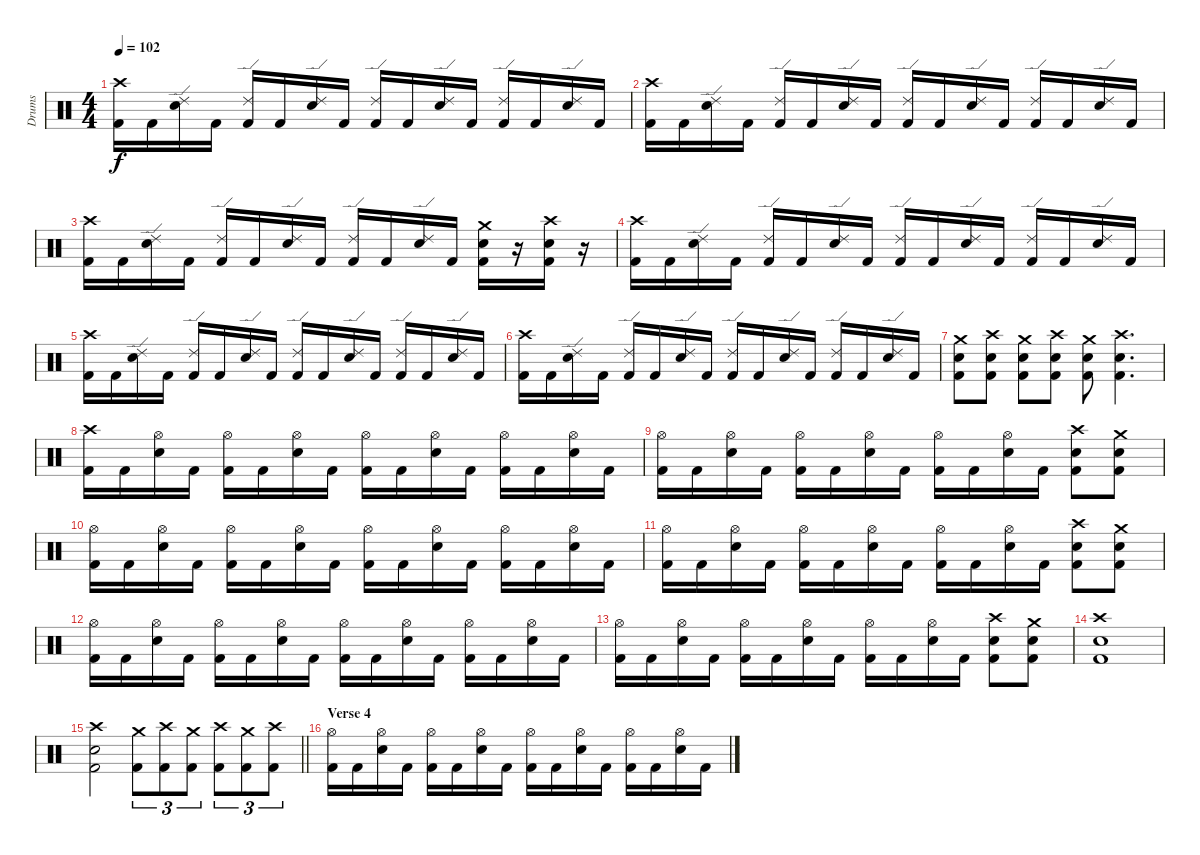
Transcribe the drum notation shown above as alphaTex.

\track ("Drums" "Drums") {instrument percussion}
\staff {score}
\articulation defaults
\ts (4 4)
\tempo 102
\clef neutral
\ks c
("Crash high (hit)" "Kick (hit) 2").16{dy f} "Kick (hit) 2".16 ("Ride (edge) 2" "Snare (hit) 2").16 "Kick (hit) 2".16 ("Ride (edge) 2" "Kick (hit) 2").16 "Kick (hit) 2".16 ("Ride (edge) 2" "Snare (hit) 2").16 "Kick (hit) 2".16 ("Ride (edge) 2" "Kick (hit) 2").16 "Kick (hit) 2".16 ("Ride (edge) 2" "Snare (hit) 2").16 "Kick (hit) 2".16 ("Ride (edge) 2" "Kick (hit) 2").16 "Kick (hit) 2".16 ("Ride (edge) 2" "Snare (hit) 2").16 "Kick (hit) 2".16 |
("Crash high (hit)" "Kick (hit) 2").16 "Kick (hit) 2".16 ("Ride (edge) 2" "Snare (hit) 2").16 "Kick (hit) 2".16 ("Ride (edge) 2" "Kick (hit) 2").16 "Kick (hit) 2".16 ("Ride (edge) 2" "Snare (hit) 2").16 "Kick (hit) 2".16 ("Ride (edge) 2" "Kick (hit) 2").16 "Kick (hit) 2".16 ("Ride (edge) 2" "Snare (hit) 2").16 "Kick (hit) 2".16 ("Ride (edge) 2" "Kick (hit) 2").16 "Kick (hit) 2".16 ("Ride (edge) 2" "Snare (hit) 2").16 "Kick (hit) 2".16 |
("Crash high (hit)" "Kick (hit) 2").16 "Kick (hit) 2".16 ("Ride (edge) 2" "Snare (hit) 2").16 "Kick (hit) 2".16 ("Ride (edge) 2" "Kick (hit) 2").16 "Kick (hit) 2".16 ("Ride (edge) 2" "Snare (hit) 2").16 "Kick (hit) 2".16 ("Ride (edge) 2" "Kick (hit) 2").16 "Kick (hit) 2".16 ("Ride (edge) 2" "Snare (hit) 2").16 "Kick (hit) 2".16 ("Crash medium (hit)" "Snare (hit) 2" "Kick (hit) 2").16 r.16 ("Crash high (hit)" "Snare (hit) 2" "Kick (hit) 2").16 r.16 |
("Crash high (hit)" "Kick (hit) 2").16 "Kick (hit) 2".16 ("Ride (edge) 2" "Snare (hit) 2").16 "Kick (hit) 2".16 ("Ride (edge) 2" "Kick (hit) 2").16 "Kick (hit) 2".16 ("Ride (edge) 2" "Snare (hit) 2").16 "Kick (hit) 2".16 ("Ride (edge) 2" "Kick (hit) 2").16 "Kick (hit) 2".16 ("Ride (edge) 2" "Snare (hit) 2").16 "Kick (hit) 2".16 ("Ride (edge) 2" "Kick (hit) 2").16 "Kick (hit) 2".16 ("Ride (edge) 2" "Snare (hit) 2").16 "Kick (hit) 2".16 |
("Crash high (hit)" "Kick (hit) 2").16 "Kick (hit) 2".16 ("Ride (edge) 2" "Snare (hit) 2").16 "Kick (hit) 2".16 ("Ride (edge) 2" "Kick (hit) 2").16 "Kick (hit) 2".16 ("Ride (edge) 2" "Snare (hit) 2").16 "Kick (hit) 2".16 ("Ride (edge) 2" "Kick (hit) 2").16 "Kick (hit) 2".16 ("Ride (edge) 2" "Snare (hit) 2").16 "Kick (hit) 2".16 ("Ride (edge) 2" "Kick (hit) 2").16 "Kick (hit) 2".16 ("Ride (edge) 2" "Snare (hit) 2").16 "Kick (hit) 2".16 |
("Crash high (hit)" "Kick (hit) 2").16 "Kick (hit) 2".16 ("Ride (edge) 2" "Snare (hit) 2").16 "Kick (hit) 2".16 ("Ride (edge) 2" "Kick (hit) 2").16 "Kick (hit) 2".16 ("Ride (edge) 2" "Snare (hit) 2").16 "Kick (hit) 2".16 ("Ride (edge) 2" "Kick (hit) 2").16 "Kick (hit) 2".16 ("Ride (edge) 2" "Snare (hit) 2").16 "Kick (hit) 2".16 ("Ride (edge) 2" "Kick (hit) 2").16 "Kick (hit) 2".16 ("Ride (edge) 2" "Snare (hit) 2").16 "Kick (hit) 2".16 |
("Crash medium (hit)" "Snare (hit) 2" "Kick (hit) 2").8 ("Crash high (hit)" "Snare (hit) 2" "Kick (hit) 2").8 ("Crash medium (hit)" "Snare (hit) 2" "Kick (hit) 2").8 ("Crash high (hit)" "Snare (hit) 2" "Kick (hit) 2").8 ("Crash medium (hit)" "Snare (hit) 2" "Kick (hit) 2").8 ("Crash high (hit)" "Snare (hit) 2" "Kick (hit) 2").4{d} |
("Crash high (hit)" "Kick (hit) 2").16 "Kick (hit) 2".16 ("Hi-Hat (open)" "Snare (hit) 2").16 "Kick (hit) 2".16 ("Hi-Hat (open)" "Kick (hit) 2").16 "Kick (hit) 2".16 ("Hi-Hat (open)" "Snare (hit) 2").16 "Kick (hit) 2".16 ("Hi-Hat (open)" "Kick (hit) 2").16 "Kick (hit) 2".16 ("Hi-Hat (open)" "Snare (hit) 2").16 "Kick (hit) 2".16 ("Hi-Hat (open)" "Kick (hit) 2").16 "Kick (hit) 2".16 ("Hi-Hat (open)" "Snare (hit) 2").16 "Kick (hit) 2".16 |
("Hi-Hat (open)" "Kick (hit) 2").16 "Kick (hit) 2".16 ("Hi-Hat (open)" "Snare (hit) 2").16 "Kick (hit) 2".16 ("Hi-Hat (open)" "Kick (hit) 2").16 "Kick (hit) 2".16 ("Hi-Hat (open)" "Snare (hit) 2").16 "Kick (hit) 2".16 ("Hi-Hat (open)" "Kick (hit) 2").16 "Kick (hit) 2".16 ("Hi-Hat (open)" "Snare (hit) 2").16 "Kick (hit) 2".16 ("Crash high (hit)" "Snare (hit) 2" "Kick (hit) 2").8 ("Crash medium (hit)" "Snare (hit) 2" "Kick (hit) 2").8 |
("Hi-Hat (open)" "Kick (hit) 2").16 "Kick (hit) 2".16 ("Hi-Hat (open)" "Snare (hit) 2").16 "Kick (hit) 2".16 ("Hi-Hat (open)" "Kick (hit) 2").16 "Kick (hit) 2".16 ("Hi-Hat (open)" "Snare (hit) 2").16 "Kick (hit) 2".16 ("Hi-Hat (open)" "Kick (hit) 2").16 "Kick (hit) 2".16 ("Hi-Hat (open)" "Snare (hit) 2").16 "Kick (hit) 2".16 ("Hi-Hat (open)" "Kick (hit) 2").16 "Kick (hit) 2".16 ("Hi-Hat (open)" "Snare (hit) 2").16 "Kick (hit) 2".16 |
("Hi-Hat (open)" "Kick (hit) 2").16 "Kick (hit) 2".16 ("Hi-Hat (open)" "Snare (hit) 2").16 "Kick (hit) 2".16 ("Hi-Hat (open)" "Kick (hit) 2").16 "Kick (hit) 2".16 ("Hi-Hat (open)" "Snare (hit) 2").16 "Kick (hit) 2".16 ("Hi-Hat (open)" "Kick (hit) 2").16 "Kick (hit) 2".16 ("Hi-Hat (open)" "Snare (hit) 2").16 "Kick (hit) 2".16 ("Crash high (hit)" "Snare (hit) 2" "Kick (hit) 2").8 ("Crash medium (hit)" "Snare (hit) 2" "Kick (hit) 2").8 |
("Hi-Hat (open)" "Kick (hit) 2").16 "Kick (hit) 2".16 ("Hi-Hat (open)" "Snare (hit) 2").16 "Kick (hit) 2".16 ("Hi-Hat (open)" "Kick (hit) 2").16 "Kick (hit) 2".16 ("Hi-Hat (open)" "Snare (hit) 2").16 "Kick (hit) 2".16 ("Hi-Hat (open)" "Kick (hit) 2").16 "Kick (hit) 2".16 ("Hi-Hat (open)" "Snare (hit) 2").16 "Kick (hit) 2".16 ("Hi-Hat (open)" "Kick (hit) 2").16 "Kick (hit) 2".16 ("Hi-Hat (open)" "Snare (hit) 2").16 "Kick (hit) 2".16 |
("Hi-Hat (open)" "Kick (hit) 2").16 "Kick (hit) 2".16 ("Hi-Hat (open)" "Snare (hit) 2").16 "Kick (hit) 2".16 ("Hi-Hat (open)" "Kick (hit) 2").16 "Kick (hit) 2".16 ("Hi-Hat (open)" "Snare (hit) 2").16 "Kick (hit) 2".16 ("Hi-Hat (open)" "Kick (hit) 2").16 "Kick (hit) 2".16 ("Hi-Hat (open)" "Snare (hit) 2").16 "Kick (hit) 2".16 ("Crash high (hit)" "Snare (hit) 2" "Kick (hit) 2").8 ("Crash medium (hit)" "Snare (hit) 2" "Kick (hit) 2").8 |
("Crash high (hit)" "Snare (hit) 2" "Kick (hit) 2").1 |
\barLineRight lightlight
("Crash high (hit)" "Snare (hit) 2" "Kick (hit) 2").2 ("Crash medium (hit)" "Kick (hit) 2").8{tu (3 2)} ("Crash high (hit)" "Kick (hit) 2").8{tu (3 2)} ("Crash medium (hit)" "Kick (hit) 2").8{tu (3 2)} ("Crash high (hit)" "Kick (hit) 2").8{tu (3 2)} ("Crash medium (hit)" "Kick (hit) 2").8{tu (3 2)} ("Crash high (hit)" "Kick (hit) 2").8{tu (3 2)} |
\section ("" "Verse 4")
("Hi-Hat (open)" "Kick (hit) 2").16 "Kick (hit) 2".16 ("Hi-Hat (open)" "Snare (hit) 2").16 "Kick (hit) 2".16 ("Hi-Hat (open)" "Kick (hit) 2").16 "Kick (hit) 2".16 ("Hi-Hat (open)" "Snare (hit) 2").16 "Kick (hit) 2".16 ("Hi-Hat (open)" "Kick (hit) 2").16 "Kick (hit) 2".16 ("Hi-Hat (open)" "Snare (hit) 2").16 "Kick (hit) 2".16 ("Hi-Hat (open)" "Kick (hit) 2").16 "Kick (hit) 2".16 ("Hi-Hat (open)" "Snare (hit) 2").16 "Kick (hit) 2".16
